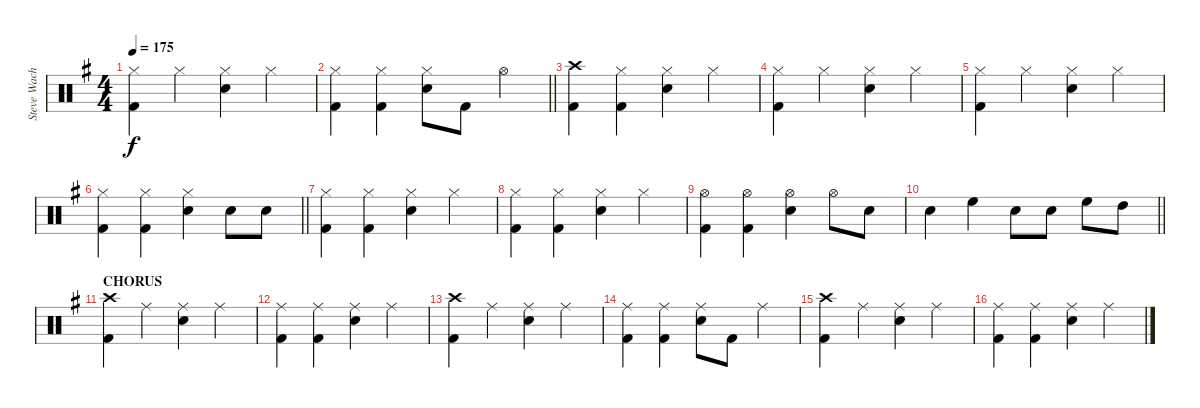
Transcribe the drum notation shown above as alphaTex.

\track ("Steve Wacholz" "Steve Wach") {instrument percussion}
\staff {score}
\articulation defaults
\ts (4 4)
\tempo 175
\clef neutral
\ks eminor
("Hi-Hat (closed)" "Kick (hit) 2").4{dy f} "Hi-Hat (closed)".4 ("Hi-Hat (closed)" "Electric Snare (hit)").4 "Hi-Hat (closed)".4 |
\barLineRight lightlight
("Hi-Hat (closed)" "Kick (hit) 2").4 ("Hi-Hat (closed)" "Kick (hit) 2").4 ("Hi-Hat (closed)" "Electric Snare (hit)").8 "Kick (hit) 2".8 "Hi-Hat (open)".4 |
("Crash high (hit)" "Kick (hit) 2").4 ("Hi-Hat (closed)" "Kick (hit) 2").4 ("Hi-Hat (closed)" "Electric Snare (hit)").4 "Hi-Hat (closed)".4 |
("Hi-Hat (closed)" "Kick (hit) 2").4 "Hi-Hat (closed)".4 ("Hi-Hat (closed)" "Electric Snare (hit)").4 "Hi-Hat (closed)".4 |
("Hi-Hat (closed)" "Kick (hit) 2").4 "Hi-Hat (closed)".4 ("Hi-Hat (closed)" "Electric Snare (hit)").4 "Hi-Hat (closed)".4 |
\barLineRight lightlight
("Hi-Hat (closed)" "Kick (hit) 2").4 ("Hi-Hat (closed)" "Kick (hit) 2").4 ("Hi-Hat (closed)" "Electric Snare (hit)").4 "Electric Snare (hit)".8 "Electric Snare (hit)".8 |
("Hi-Hat (closed)" "Kick (hit) 2").4 ("Hi-Hat (closed)" "Kick (hit) 2").4 ("Hi-Hat (closed)" "Electric Snare (hit)").4 "Hi-Hat (closed)".4 |
("Hi-Hat (closed)" "Kick (hit) 2").4 ("Hi-Hat (closed)" "Kick (hit) 2").4 ("Hi-Hat (closed)" "Electric Snare (hit)").4 "Hi-Hat (closed)".4 |
("Hi-Hat (open)" "Kick (hit) 2").4 ("Hi-Hat (open)" "Kick (hit) 2").4 ("Hi-Hat (open)" "Electric Snare (hit)").4 "Hi-Hat (open)".8 "Electric Snare (hit)".8 |
\barLineRight lightlight "Electric Snare (hit)".4 "High Floor Tom (hit)".4 "Electric Snare (hit)".8 "Electric Snare (hit)".8 "High Floor Tom (hit)".8 "High Tom (hit)".8
|
\section ("" "CHORUS")
("Crash high (hit)" "Kick (hit) 2").4 "Ride (middle)".4 ("Ride (middle)" "Electric Snare (hit)").4 "Ride (middle)".4 |
("Ride (middle)" "Kick (hit) 2").4 ("Ride (middle)" "Kick (hit) 2").4 ("Ride (middle)" "Electric Snare (hit)").4 "Ride (middle)".4 |
("Crash high (hit)" "Kick (hit) 2").4 "Ride (middle)".4 ("Ride (middle)" "Electric Snare (hit)").4 "Ride (middle)".4 |
("Ride (middle)" "Kick (hit) 2").4 ("Ride (middle)" "Kick (hit) 2").4 ("Ride (middle)" "Electric Snare (hit)").8 "Kick (hit) 2".8 "Ride (middle)".4 |
("Crash high (hit)" "Kick (hit) 2").4 "Ride (middle)".4 ("Ride (middle)" "Electric Snare (hit)").4 "Ride (middle)".4 |
("Ride (middle)" "Kick (hit) 2").4 ("Ride (middle)" "Kick (hit) 2").4 ("Ride (middle)" "Electric Snare (hit)").4 "Ride (middle)".4
